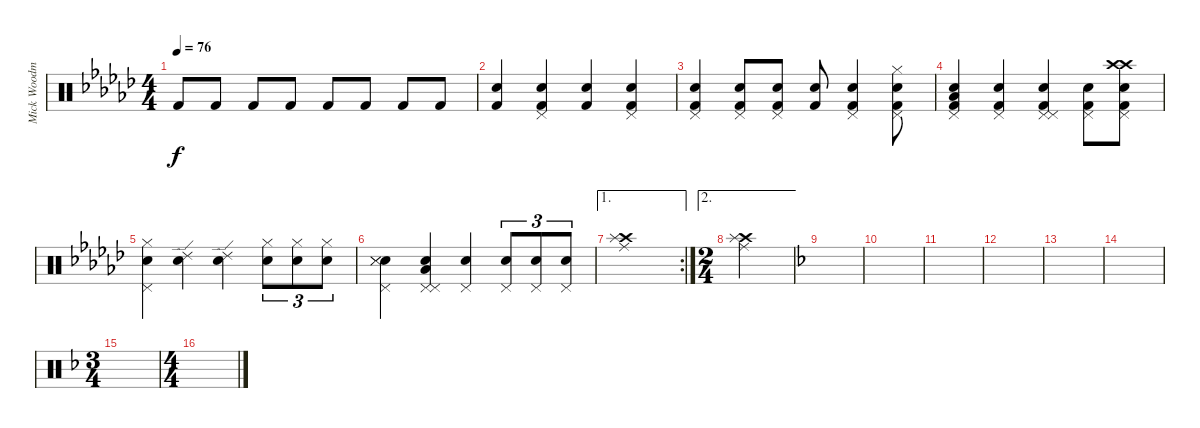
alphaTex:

\track ("Mick Woodmansey-Drums" "Mick Woodm") {instrument percussion}
\staff {score}
\articulation defaults
\ts (4 4)
\tempo 76
\clef neutral
\ks gb "Kick (hit) 2".8{dy f} "Kick (hit) 2".8 "Kick (hit) 2".8 "Kick (hit) 2".8 "Kick (hit) 2".8 "Kick (hit) 2".8 "Kick (hit) 2".8 "Kick (hit) 2".8
|
("Electric Snare (hit)" "Kick (hit) 2").4 ("Electric Snare (hit)" "Pedal Hi-Hat (hit)" "Kick (hit) 2").4 ("Electric Snare (hit)" "Kick (hit) 2").4 ("Electric Snare (hit)" "Pedal Hi-Hat (hit)" "Kick (hit) 2").4 |
("Pedal Hi-Hat (hit)" "Snare (hit) 2" "Kick (hit) 2").4 ("Snare (hit) 2" "Pedal Hi-Hat (hit)" "Kick (hit) 2").8 ("Pedal Hi-Hat (hit)" "Snare (hit) 2" "Kick (hit) 2").8 ("Snare (hit) 2" "Kick (hit) 2").8 ("Snare (hit) 2" "Pedal Hi-Hat (hit)" "Kick (hit) 2").4 ("Hi-Hat (closed)" "Pedal Hi-Hat (hit)" "Snare (hit) 2" "Kick (hit) 2").8 |
("Pedal Hi-Hat (hit)" "Low Floor Tom (hit)" "Snare (hit) 2" "Kick (hit) 2").4 ("Snare (hit) 2" "Pedal Hi-Hat (hit)" "Kick (hit) 2").4 ("Pedal Hi-Hat (hit)" "Snare (hit) 2" "Pedal Hi-Hat (hit)" "Kick (hit) 2").4 ("Pedal Hi-Hat (hit)" "Snare (hit) 2" "Kick (hit) 2").8 ("Pedal Hi-Hat (hit)" "Snare (hit) 2" "Crash high (hit)" "Kick (hit) 2" "Crash high (hit)").8 |
("Hi-Hat (closed)" "Pedal Hi-Hat (hit)" "Snare (hit) 2").4 ("Snare (hit) 2" "Ride (edge) 2").4 ("Snare (hit) 2" "Ride (edge) 2").4 ("Snare (hit) 2" "Hi-Hat (closed)").8{tu (3 2)} ("Snare (hit) 2" "Hi-Hat (closed)").8{tu (3 2)} ("Snare (hit) 2" "Hi-Hat (closed)").8{tu (3 2)} |
("Electric Snare (hit)" "Snare (side stick) 3" "Snare (side stick) 3" "Pedal Hi-Hat (hit)").4 ("Pedal Hi-Hat (hit)" "Low Floor Tom (hit)" "Snare (hit) 2" "Pedal Hi-Hat (hit)").4 ("Snare (hit) 2" "Pedal Hi-Hat (hit)").4 ("Pedal Hi-Hat (hit)" "Snare (hit) 2").8{tu (3 2)} ("Pedal Hi-Hat (hit)" "Snare (hit) 2").8{tu (3 2)} ("Pedal Hi-Hat (hit)" "Snare (hit) 2").8{tu (3 2)} |
\ae 1
\rc 2
("Crash high (hit)" "Ride (middle)" "Splash (hit)").1 |
\ae 2
\ts (2 4)
("Crash high (hit)" "Ride (middle)" "Splash (hit)").2 |
\ks f
|
|
|
|
|
|
\ts (3 4)
|
\ts (4 4)
